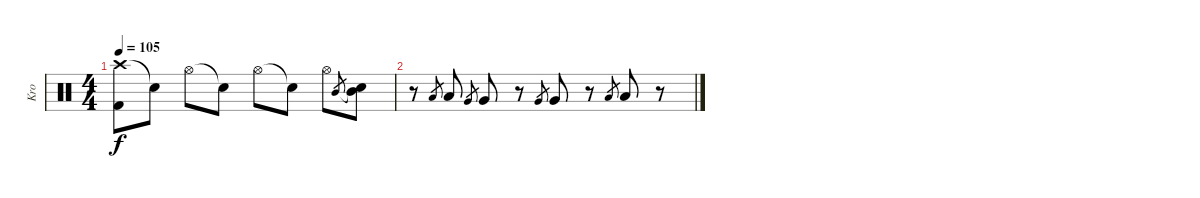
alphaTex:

\track ("Kro" "Kro") {instrument percussion}
\staff {score}
\articulation defaults
\ts (4 4)
\tempo 105
\clef neutral
\ks c
("Crash high (hit)" "Kick (hit) 2").8{dy f} "Snare (hit)"{t}.8 "Hi-Hat (open)".8 "Snare (hit)"{t}.8 "Hi-Hat (open)".8 "Snare (hit)"{t}.8 "Hi-Hat (open)".8 "Mid Tom (hit)".8{gr} ("Snare (hit)"{t} "Mid Tom (hit)").8 |
r.8 "Low Tom (hit)".8{gr} "Low Tom (hit)".8 "Very Low Tom (hit)".8{gr} "Very Low Tom (hit)".8 r.8 "Very Low Tom (hit)".8{gr} "Very Low Tom (hit)".8 r.8 "Low Floor Tom (hit)".8{gr} "Low Floor Tom (hit)".8 r.8
